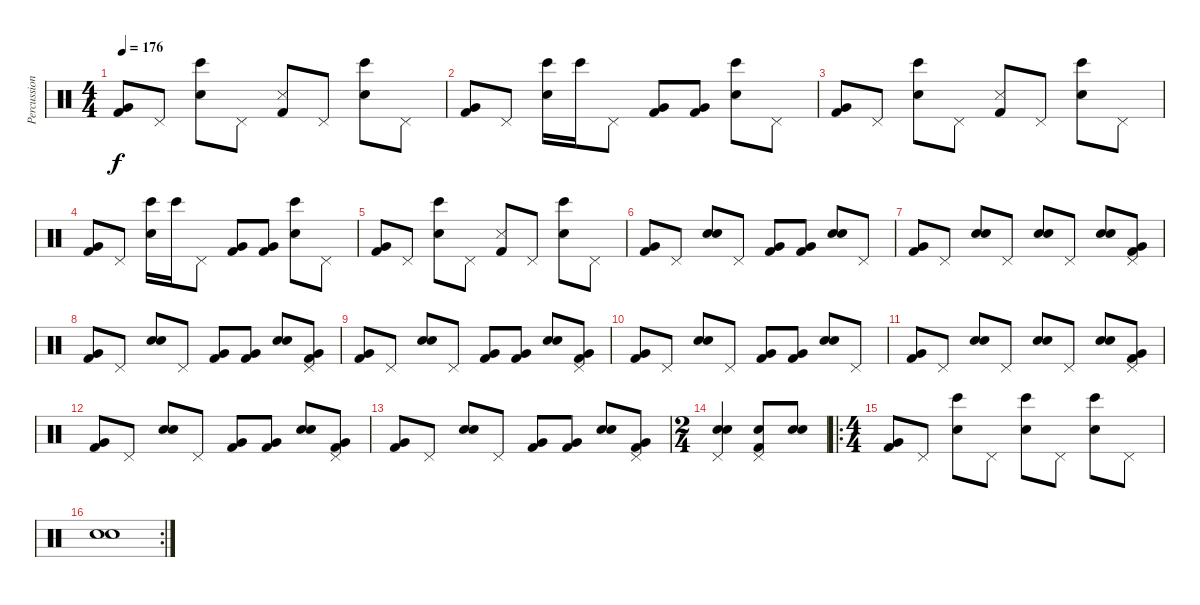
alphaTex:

\track ("Percussions" "Percussion") {instrument percussion}
\staff {score}
\articulation defaults
\ts (4 4)
\tempo 176
\clef neutral
\ks c
("Kick (hit) 2" "Very Low Tom (hit)").8{dy f} "Pedal Hi-Hat (hit)".8 ("Snare (hit) 2" "Bongo High (hit)").8 "Pedal Hi-Hat (hit)".8 ("Kick (hit) 2" "Snare (side stick) 3").8 "Pedal Hi-Hat (hit)".8 ("Snare (hit) 2" "Bongo High (hit)").8 "Pedal Hi-Hat (hit)".8 |
("Kick (hit) 2" "Very Low Tom (hit)").8 "Pedal Hi-Hat (hit)".8 ("Snare (hit) 2" "Bongo High (hit)").16 "Bongo High (hit)".16 "Pedal Hi-Hat (hit)".8 ("Kick (hit) 2" "Very Low Tom (hit)").8 ("Kick (hit) 2" "Very Low Tom (hit)").8 ("Snare (hit) 2" "Bongo High (hit)").8 "Pedal Hi-Hat (hit)".8 |
("Kick (hit) 2" "Very Low Tom (hit)").8 "Pedal Hi-Hat (hit)".8 ("Snare (hit) 2" "Bongo High (hit)").8 "Pedal Hi-Hat (hit)".8 ("Kick (hit) 2" "Snare (side stick) 3").8 "Pedal Hi-Hat (hit)".8 ("Snare (hit) 2" "Bongo High (hit)").8 "Pedal Hi-Hat (hit)".8 |
("Kick (hit) 2" "Very Low Tom (hit)").8 "Pedal Hi-Hat (hit)".8 ("Snare (hit) 2" "Bongo High (hit)").16 "Bongo High (hit)".16 "Pedal Hi-Hat (hit)".8 ("Kick (hit) 2" "Very Low Tom (hit)").8 ("Kick (hit) 2" "Very Low Tom (hit)").8 ("Snare (hit) 2" "Bongo High (hit)").8 "Pedal Hi-Hat (hit)".8 |
("Kick (hit) 2" "Very Low Tom (hit)").8 "Pedal Hi-Hat (hit)".8 ("Snare (hit) 2" "Bongo High (hit)").8 "Pedal Hi-Hat (hit)".8 ("Kick (hit) 2" "Snare (side stick) 3").8 "Pedal Hi-Hat (hit)".8 ("Snare (hit) 2" "Bongo High (hit)").8 "Pedal Hi-Hat (hit)".8 |
("Kick (hit) 2" "Very Low Tom (hit)").8 "Pedal Hi-Hat (hit)".8 ("Snare (hit) 2" "Electric Snare (hit)").8 "Pedal Hi-Hat (hit)".8 ("Kick (hit) 2" "Very Low Tom (hit)").8 ("Kick (hit) 2" "Very Low Tom (hit)").8 ("Snare (hit) 2" "Electric Snare (hit)").8 "Pedal Hi-Hat (hit)".8 |
("Kick (hit) 2" "Very Low Tom (hit)").8 "Pedal Hi-Hat (hit)".8 ("Snare (hit) 2" "Electric Snare (hit)").8 "Pedal Hi-Hat (hit)".8 ("Snare (hit) 2" "Electric Snare (hit)").8 "Pedal Hi-Hat (hit)".8 ("Snare (hit) 2" "Electric Snare (hit)").8 ("Pedal Hi-Hat (hit)" "Kick (hit) 2" "Very Low Tom (hit)").8 |
("Kick (hit) 2" "Very Low Tom (hit)").8 "Pedal Hi-Hat (hit)".8 ("Snare (hit) 2" "Electric Snare (hit)").8 "Pedal Hi-Hat (hit)".8 ("Kick (hit) 2" "Very Low Tom (hit)").8 ("Kick (hit) 2" "Very Low Tom (hit)").8 ("Snare (hit) 2" "Electric Snare (hit)").8 ("Pedal Hi-Hat (hit)" "Kick (hit) 2" "Very Low Tom (hit)").8 |
("Kick (hit) 2" "Very Low Tom (hit)").8 "Pedal Hi-Hat (hit)".8 ("Snare (hit) 2" "Electric Snare (hit)").8 "Pedal Hi-Hat (hit)".8 ("Kick (hit) 2" "Very Low Tom (hit)").8 ("Kick (hit) 2" "Very Low Tom (hit)").8 ("Snare (hit) 2" "Electric Snare (hit)").8 ("Pedal Hi-Hat (hit)" "Kick (hit) 2" "Very Low Tom (hit)").8 |
("Kick (hit) 2" "Very Low Tom (hit)").8 "Pedal Hi-Hat (hit)".8 ("Snare (hit) 2" "Electric Snare (hit)").8 "Pedal Hi-Hat (hit)".8 ("Kick (hit) 2" "Very Low Tom (hit)").8 ("Kick (hit) 2" "Very Low Tom (hit)").8 ("Snare (hit) 2" "Electric Snare (hit)").8 "Pedal Hi-Hat (hit)".8 |
("Kick (hit) 2" "Very Low Tom (hit)").8 "Pedal Hi-Hat (hit)".8 ("Snare (hit) 2" "Electric Snare (hit)").8 "Pedal Hi-Hat (hit)".8 ("Snare (hit) 2" "Electric Snare (hit)").8 "Pedal Hi-Hat (hit)".8 ("Snare (hit) 2" "Electric Snare (hit)").8 ("Pedal Hi-Hat (hit)" "Kick (hit) 2" "Very Low Tom (hit)").8 |
("Kick (hit) 2" "Very Low Tom (hit)").8 "Pedal Hi-Hat (hit)".8 ("Snare (hit) 2" "Electric Snare (hit)").8 "Pedal Hi-Hat (hit)".8 ("Kick (hit) 2" "Very Low Tom (hit)").8 ("Kick (hit) 2" "Very Low Tom (hit)").8 ("Snare (hit) 2" "Electric Snare (hit)").8 ("Pedal Hi-Hat (hit)" "Kick (hit) 2" "Very Low Tom (hit)").8 |
("Kick (hit) 2" "Very Low Tom (hit)").8 "Pedal Hi-Hat (hit)".8 ("Snare (hit) 2" "Electric Snare (hit)").8 "Pedal Hi-Hat (hit)".8 ("Kick (hit) 2" "Very Low Tom (hit)").8 ("Kick (hit) 2" "Very Low Tom (hit)").8 ("Snare (hit) 2" "Electric Snare (hit)").8 ("Pedal Hi-Hat (hit)" "Kick (hit) 2" "Very Low Tom (hit)").8 |
\ts (2 4)
("Pedal Hi-Hat (hit)" "Snare (hit) 2" "Electric Snare (hit)").4 ("Pedal Hi-Hat (hit)" "Kick (hit) 2" "Electric Snare (hit)").8 ("Snare (hit) 2" "Electric Snare (hit)").8 |
\ro
\ts (4 4)
("Kick (hit) 2" "Very Low Tom (hit)").8 "Pedal Hi-Hat (hit)".8 ("Snare (hit) 2" "Bongo High (hit)").8 "Pedal Hi-Hat (hit)".8 ("Snare (hit) 2" "Bongo High (hit)").8 "Pedal Hi-Hat (hit)".8 ("Snare (hit) 2" "Bongo High (hit)").8 "Pedal Hi-Hat (hit)".8 |
\rc 2
("Snare (hit) 2" "Electric Snare (hit)").1
